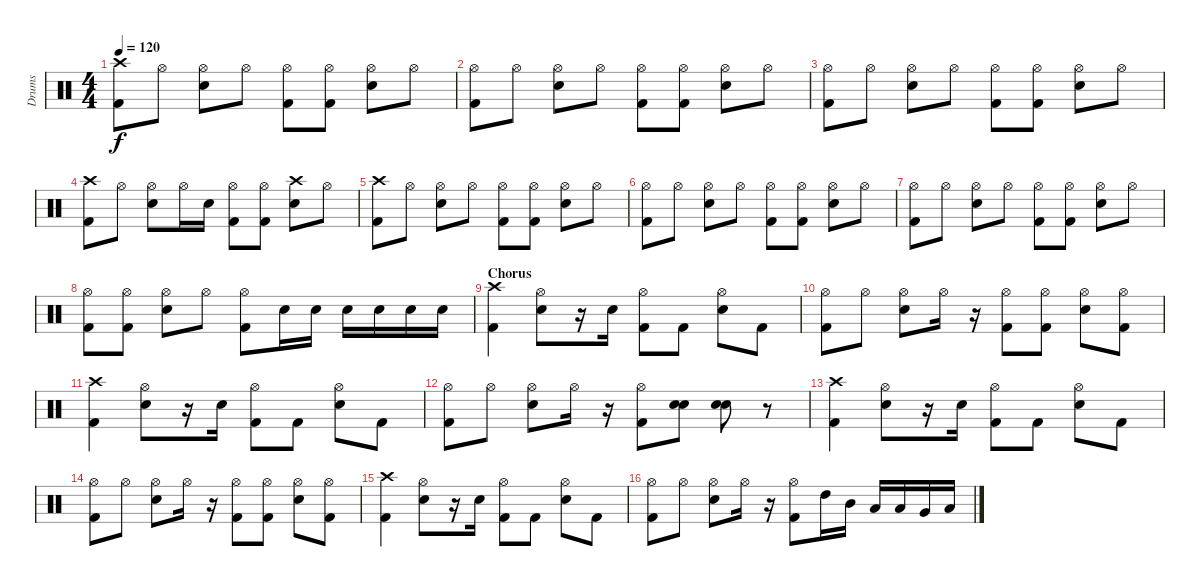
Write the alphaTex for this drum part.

\track ("Drums" "Drums") {instrument percussion}
\staff {score}
\articulation defaults
\ts (4 4)
\tempo 120
\clef neutral
\ks c
("Crash high (hit)" "Kick (hit) 2").8{dy f} "Hi-Hat (open)".8 ("Hi-Hat (open)" "Snare (hit) 2").8 "Hi-Hat (open)".8 ("Hi-Hat (open)" "Kick (hit) 2").8 ("Hi-Hat (open)" "Kick (hit) 2").8 ("Hi-Hat (open)" "Snare (hit) 2").8 "Hi-Hat (open)".8 |
("Hi-Hat (open)" "Kick (hit) 2").8 "Hi-Hat (open)".8 ("Hi-Hat (open)" "Snare (hit) 2").8 "Hi-Hat (open)".8 ("Hi-Hat (open)" "Kick (hit) 2").8 ("Hi-Hat (open)" "Kick (hit) 2").8 ("Hi-Hat (open)" "Snare (hit) 2").8 "Hi-Hat (open)".8 |
("Hi-Hat (open)" "Kick (hit) 2").8 "Hi-Hat (open)".8 ("Hi-Hat (open)" "Snare (hit) 2").8 "Hi-Hat (open)".8 ("Hi-Hat (open)" "Kick (hit) 2").8 ("Hi-Hat (open)" "Kick (hit) 2").8 ("Hi-Hat (open)" "Snare (hit) 2").8 "Hi-Hat (open)".8 |
("Crash high (hit)" "Kick (hit) 2").8 "Hi-Hat (open)".8 ("Hi-Hat (open)" "Snare (hit) 2").8 "Hi-Hat (open)".16 "Snare (hit) 2".16 ("Hi-Hat (open)" "Kick (hit) 2").8 ("Hi-Hat (open)" "Kick (hit) 2").8 ("Crash high (hit)" "Snare (hit) 2").8 "Hi-Hat (open)".8 |
("Crash high (hit)" "Kick (hit) 2").8 "Hi-Hat (open)".8 ("Hi-Hat (open)" "Snare (hit) 2").8 "Hi-Hat (open)".8 ("Hi-Hat (open)" "Kick (hit) 2").8 ("Hi-Hat (open)" "Kick (hit) 2").8 ("Hi-Hat (open)" "Snare (hit) 2").8 "Hi-Hat (open)".8 |
("Hi-Hat (open)" "Kick (hit) 2").8 "Hi-Hat (open)".8 ("Hi-Hat (open)" "Snare (hit) 2").8 "Hi-Hat (open)".8 ("Hi-Hat (open)" "Kick (hit) 2").8 ("Hi-Hat (open)" "Kick (hit) 2").8 ("Hi-Hat (open)" "Snare (hit) 2").8 "Hi-Hat (open)".8 |
("Hi-Hat (open)" "Kick (hit) 2").8 "Hi-Hat (open)".8 ("Hi-Hat (open)" "Snare (hit) 2").8 "Hi-Hat (open)".8 ("Hi-Hat (open)" "Kick (hit) 2").8 ("Hi-Hat (open)" "Kick (hit) 2").8 ("Hi-Hat (open)" "Snare (hit) 2").8 "Hi-Hat (open)".8 |
("Hi-Hat (open)" "Kick (hit) 2").8 ("Hi-Hat (open)" "Kick (hit) 2").8 ("Hi-Hat (open)" "Snare (hit) 2").8 "Hi-Hat (open)".8 ("Hi-Hat (open)" "Kick (hit) 2").8 "Snare (hit) 2".16 "Snare (hit) 2".16 "Snare (hit) 2".16 "Snare (hit) 2".16 "Snare (hit) 2".16 "Snare (hit) 2".16 |
\section ("" "Chorus")
("Crash high (hit)" "Kick (hit) 2").4 ("Hi-Hat (open)" "Snare (hit) 2").8 r.16 "Snare (hit) 2".16 ("Hi-Hat (open)" "Kick (hit) 2").8 "Kick (hit) 2".8 ("Hi-Hat (open)" "Snare (hit) 2").8 "Kick (hit) 2".8 |
("Hi-Hat (open)" "Kick (hit) 2").8 "Hi-Hat (open)".8 ("Hi-Hat (open)" "Snare (hit) 2").8 "Hi-Hat (open)".16 r.16 ("Hi-Hat (open)" "Kick (hit) 2").8 ("Hi-Hat (open)" "Kick (hit) 2").8 ("Hi-Hat (open)" "Snare (hit) 2").8 ("Hi-Hat (open)" "Kick (hit) 2").8 |
("Crash high (hit)" "Kick (hit) 2").4 ("Hi-Hat (open)" "Snare (hit) 2").8 r.16 "Snare (hit) 2".16 ("Hi-Hat (open)" "Kick (hit) 2").8 "Kick (hit) 2".8 ("Hi-Hat (open)" "Snare (hit) 2").8 "Kick (hit) 2".8 |
("Hi-Hat (open)" "Kick (hit) 2").8 "Hi-Hat (open)".8 ("Hi-Hat (open)" "Snare (hit) 2").8 "Hi-Hat (open)".16 r.16 ("Hi-Hat (open)" "Kick (hit) 2").8 ("Snare (hit) 2" "Snare (hit) 2").8 ("Snare (hit) 2" "Snare (hit) 2").8 r.8 |
("Crash high (hit)" "Kick (hit) 2").4 ("Hi-Hat (open)" "Snare (hit) 2").8 r.16 "Snare (hit) 2".16 ("Hi-Hat (open)" "Kick (hit) 2").8 "Kick (hit) 2".8 ("Hi-Hat (open)" "Snare (hit) 2").8 "Kick (hit) 2".8 |
("Hi-Hat (open)" "Kick (hit) 2").8 "Hi-Hat (open)".8 ("Hi-Hat (open)" "Snare (hit) 2").8 "Hi-Hat (open)".16 r.16 ("Hi-Hat (open)" "Kick (hit) 2").8 ("Hi-Hat (open)" "Kick (hit) 2").8 ("Hi-Hat (open)" "Snare (hit) 2").8 ("Hi-Hat (open)" "Kick (hit) 2").8 |
("Crash high (hit)" "Kick (hit) 2").4 ("Hi-Hat (open)" "Snare (hit) 2").8 r.16 "Snare (hit) 2".16 ("Hi-Hat (open)" "Kick (hit) 2").8 "Kick (hit) 2".8 ("Hi-Hat (open)" "Snare (hit) 2").8 "Kick (hit) 2".8 |
("Hi-Hat (open)" "Kick (hit) 2").8 "Hi-Hat (open)".8 ("Hi-Hat (open)" "Snare (hit) 2").8 "Hi-Hat (open)".16 r.16 ("Hi-Hat (open)" "Kick (hit) 2").8 "High Tom (hit)".16 "Mid Tom (hit)".16 "Low Tom (hit)".16 "Low Tom (hit)".16 "Very Low Tom (hit)".16 "Low Floor Tom (hit)".16
